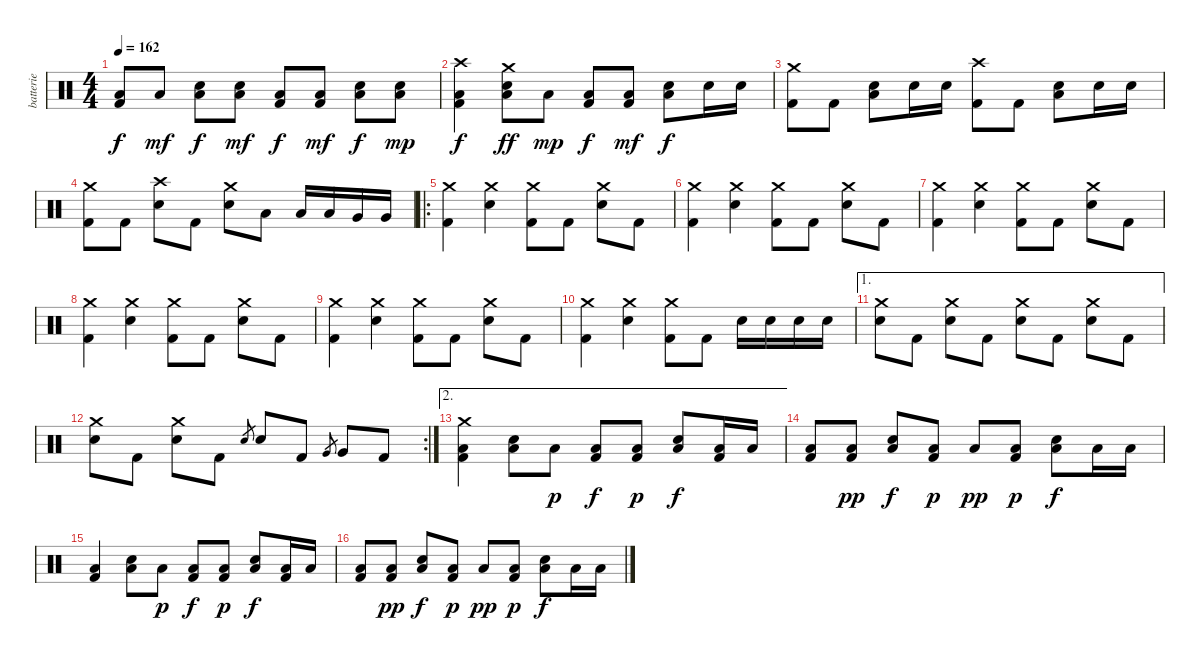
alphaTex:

\track ("batterie" "batterie") {instrument percussion}
\staff {score}
\articulation defaults
\ts (4 4)
\tempo 162
\clef neutral
\ks c
("Low Floor Tom (hit)" "Kick (hit) 2").8{dy f} "Low Floor Tom (hit)".8{dy mf} ("Low Floor Tom (hit)" "Electric Snare (hit)").8{dy f} ("Low Floor Tom (hit)" "Electric Snare (hit)").8{dy mf} ("Low Floor Tom (hit)" "Kick (hit) 2").8{dy f} ("Low Floor Tom (hit)" "Kick (hit) 2").8{dy mf} ("Low Floor Tom (hit)" "Electric Snare (hit)").8{dy f} ("Low Floor Tom (hit)" "Electric Snare (hit)").8{dy mp} |
("Low Floor Tom (hit)" "Crash high (hit)" "Kick (hit) 2").4{dy f} ("Low Floor Tom (hit)" "Crash medium (hit)" "Electric Snare (hit)").8{dy ff} "Low Floor Tom (hit)".8{dy mp} ("Low Floor Tom (hit)" "Kick (hit) 2").8{dy f} ("Low Floor Tom (hit)" "Kick (hit) 2").8{dy mf} ("Low Floor Tom (hit)" "Electric Snare (hit)").8{dy f} "Electric Snare (hit)".16 "Electric Snare (hit)".16 |
("Crash medium (hit)" "Kick (hit) 2").8 "Kick (hit) 2".8 ("Low Floor Tom (hit)" "Electric Snare (hit)").8 "Electric Snare (hit)".16 "Electric Snare (hit)".16 ("Crash high (hit)" "Kick (hit) 2").8 "Kick (hit) 2".8 ("Low Floor Tom (hit)" "Electric Snare (hit)").8 "Electric Snare (hit)".16 "Electric Snare (hit)".16 |
("Crash medium (hit)" "Kick (hit) 2").8 "Kick (hit) 2".8 ("Crash high (hit)" "Electric Snare (hit)").8 "Kick (hit) 2".8 ("Crash medium (hit)" "Electric Snare (hit)").8 "Low Tom (hit)".8 "Low Tom (hit)".16 "Low Tom (hit)".16 "Very Low Tom (hit)".16 "Very Low Tom (hit)".16 |
\ro
("Crash medium (hit)" "Kick (hit) 2").4 ("Crash medium (hit)" "Electric Snare (hit)").4 ("Crash medium (hit)" "Kick (hit) 2").8 "Kick (hit) 2".8 ("Crash medium (hit)" "Electric Snare (hit)").8 "Kick (hit) 2".8 |
("Crash medium (hit)" "Kick (hit) 2").4 ("Crash medium (hit)" "Electric Snare (hit)").4 ("Crash medium (hit)" "Kick (hit) 2").8 "Kick (hit) 2".8 ("Crash medium (hit)" "Electric Snare (hit)").8 "Kick (hit) 2".8 |
("Crash medium (hit)" "Kick (hit) 2").4 ("Crash medium (hit)" "Electric Snare (hit)").4 ("Crash medium (hit)" "Kick (hit) 2").8 "Kick (hit) 2".8 ("Crash medium (hit)" "Electric Snare (hit)").8 "Kick (hit) 2".8 |
("Crash medium (hit)" "Kick (hit) 2").4 ("Crash medium (hit)" "Electric Snare (hit)").4 ("Crash medium (hit)" "Kick (hit) 2").8 "Kick (hit) 2".8 ("Crash medium (hit)" "Electric Snare (hit)").8 "Kick (hit) 2".8 |
("Crash medium (hit)" "Kick (hit) 2").4 ("Crash medium (hit)" "Electric Snare (hit)").4 ("Crash medium (hit)" "Kick (hit) 2").8 "Kick (hit) 2".8 ("Crash medium (hit)" "Electric Snare (hit)").8 "Kick (hit) 2".8 |
("Crash medium (hit)" "Kick (hit) 2").4 ("Crash medium (hit)" "Electric Snare (hit)").4 ("Crash medium (hit)" "Kick (hit) 2").8 "Kick (hit) 2".8 "Electric Snare (hit)".16 "Electric Snare (hit)".16 "Electric Snare (hit)".16 "Electric Snare (hit)".16 |
\ae 1
("Crash medium (hit)" "Electric Snare (hit)").8 "Kick (hit) 2".8 ("Crash medium (hit)" "Electric Snare (hit)").8 "Kick (hit) 2".8 ("Crash medium (hit)" "Electric Snare (hit)").8 "Kick (hit) 2".8 ("Crash medium (hit)" "Electric Snare (hit)").8 "Kick (hit) 2".8 |
\rc 2
("Crash medium (hit)" "Electric Snare (hit)").8 "Kick (hit) 2".8 ("Crash medium (hit)" "Electric Snare (hit)").8 "Kick (hit) 2".8 "Electric Snare (hit)".8{gr} "Electric Snare (hit)".8 "Kick (hit) 2".8 "Very Low Tom (hit)".8{gr} "Very Low Tom (hit)".8 "Kick (hit) 2".8 |
\ae 2
("Low Floor Tom (hit)" "Crash medium (hit)" "Kick (hit) 2").4 ("Low Floor Tom (hit)" "Electric Snare (hit)").8 "Low Floor Tom (hit)".8{dy p} ("Low Floor Tom (hit)" "Kick (hit) 2").8{dy f} ("Low Floor Tom (hit)" "Kick (hit) 2").8{dy p} ("Low Floor Tom (hit)" "Electric Snare (hit)").8{dy f} ("Low Floor Tom (hit)" "Kick (hit) 2").16 "Low Floor Tom (hit)".16 |
("Low Floor Tom (hit)" "Kick (hit) 2").8 ("Low Floor Tom (hit)" "Kick (hit) 2").8{dy pp} ("Low Floor Tom (hit)" "Electric Snare (hit)").8{dy f} ("Low Floor Tom (hit)" "Kick (hit) 2").8{dy p} "Low Floor Tom (hit)".8{dy pp} ("Low Floor Tom (hit)" "Kick (hit) 2").8{dy p} ("Low Floor Tom (hit)" "Electric Snare (hit)").8{dy f} "Low Floor Tom (hit)".16 "Low Floor Tom (hit)".16 |
("Low Floor Tom (hit)" "Kick (hit) 2").4 ("Low Floor Tom (hit)" "Electric Snare (hit)").8 "Low Floor Tom (hit)".8{dy p} ("Low Floor Tom (hit)" "Kick (hit) 2").8{dy f} ("Low Floor Tom (hit)" "Kick (hit) 2").8{dy p} ("Low Floor Tom (hit)" "Electric Snare (hit)").8{dy f} ("Low Floor Tom (hit)" "Kick (hit) 2").16 "Low Floor Tom (hit)".16 |
("Low Floor Tom (hit)" "Kick (hit) 2").8 ("Low Floor Tom (hit)" "Kick (hit) 2").8{dy pp} ("Low Floor Tom (hit)" "Electric Snare (hit)").8{dy f} ("Low Floor Tom (hit)" "Kick (hit) 2").8{dy p} "Low Floor Tom (hit)".8{dy pp} ("Low Floor Tom (hit)" "Kick (hit) 2").8{dy p} ("Low Floor Tom (hit)" "Electric Snare (hit)").8{dy f} "Low Floor Tom (hit)".16 "Low Floor Tom (hit)".16
